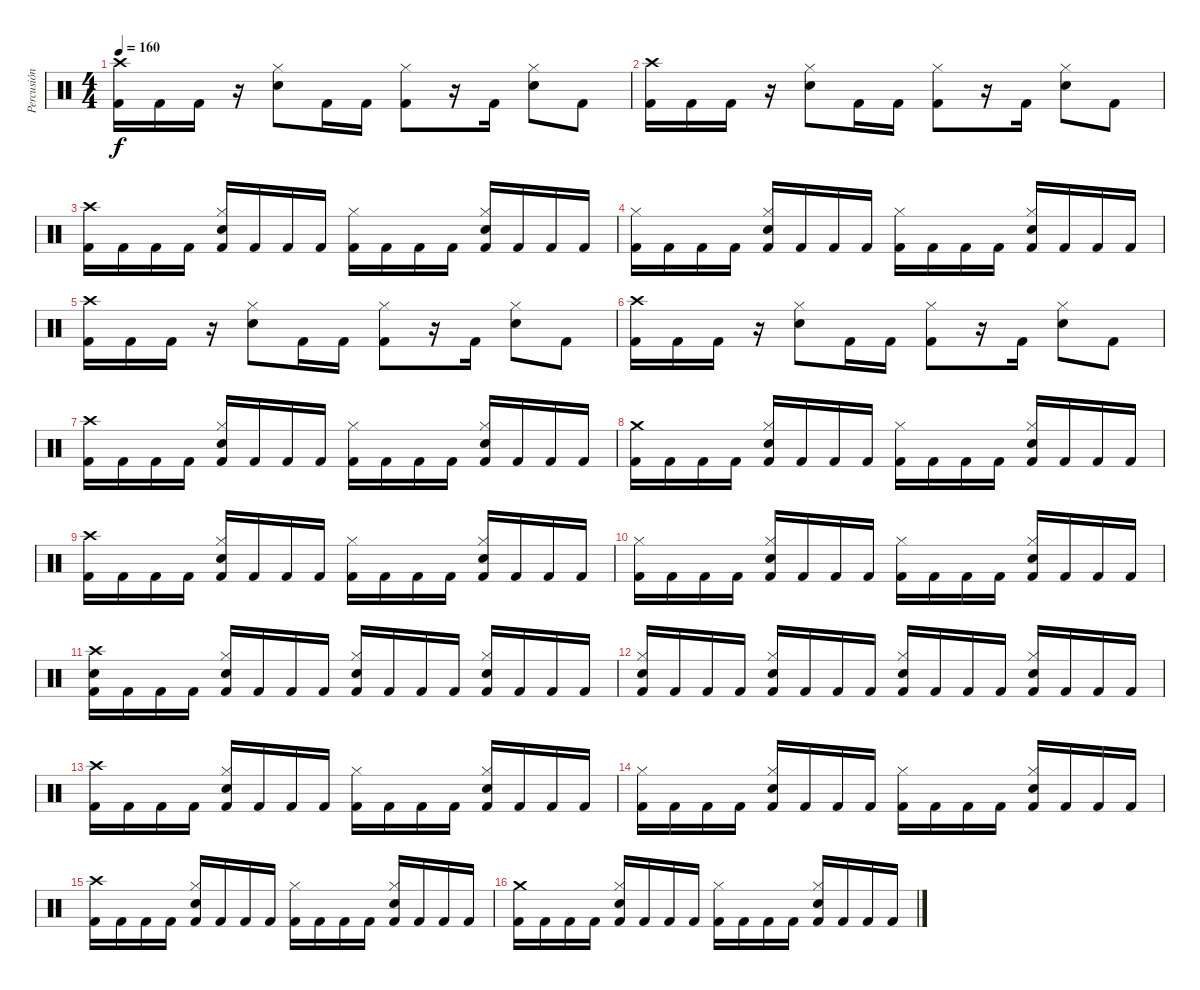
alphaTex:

\track ("Percusión" "Percusión") {instrument percussion}
\staff {score}
\articulation defaults
\ts (4 4)
\tempo 160
\clef neutral
\ks c
("Crash high (hit)" "Kick (hit) 2").16{dy f} "Kick (hit) 2".16 "Kick (hit) 2".16 r.16 ("Hi-Hat (closed)" "Electric Snare (hit)").8 "Kick (hit) 2".16 "Kick (hit) 2".16 ("Hi-Hat (closed)" "Kick (hit) 2").8 r.16 "Kick (hit) 2".16 ("Hi-Hat (closed)" "Electric Snare (hit)").8 "Kick (hit) 2".8 |
("Crash high (hit)" "Kick (hit) 2").16 "Kick (hit) 2".16 "Kick (hit) 2".16 r.16 ("Hi-Hat (closed)" "Electric Snare (hit)").8 "Kick (hit) 2".16 "Kick (hit) 2".16 ("Hi-Hat (closed)" "Kick (hit) 2").8 r.16 "Kick (hit) 2".16 ("Hi-Hat (closed)" "Electric Snare (hit)").8 "Kick (hit) 2".8 |
("Crash high (hit)" "Kick (hit) 2").16 "Kick (hit) 2".16 "Kick (hit) 2".16 "Kick (hit) 2".16 ("Hi-Hat (closed)" "Electric Snare (hit)" "Kick (hit) 2").16 "Kick (hit) 2".16 "Kick (hit) 2".16 "Kick (hit) 2".16 ("Hi-Hat (closed)" "Kick (hit) 2").16 "Kick (hit) 2".16 "Kick (hit) 2".16 "Kick (hit) 2".16 ("Hi-Hat (closed)" "Electric Snare (hit)" "Kick (hit) 2").16 "Kick (hit) 2".16 "Kick (hit) 2".16 "Kick (hit) 2".16 |
("Hi-Hat (closed)" "Kick (hit) 2").16 "Kick (hit) 2".16 "Kick (hit) 2".16 "Kick (hit) 2".16 ("Hi-Hat (closed)" "Electric Snare (hit)" "Kick (hit) 2").16 "Kick (hit) 2".16 "Kick (hit) 2".16 "Kick (hit) 2".16 ("Hi-Hat (closed)" "Kick (hit) 2").16 "Kick (hit) 2".16 "Kick (hit) 2".16 "Kick (hit) 2".16 ("Hi-Hat (closed)" "Electric Snare (hit)" "Kick (hit) 2").16 "Kick (hit) 2".16 "Kick (hit) 2".16 "Kick (hit) 2".16 |
("Crash high (hit)" "Kick (hit) 2").16 "Kick (hit) 2".16 "Kick (hit) 2".16 r.16 ("Hi-Hat (closed)" "Electric Snare (hit)").8 "Kick (hit) 2".16 "Kick (hit) 2".16 ("Hi-Hat (closed)" "Kick (hit) 2").8 r.16 "Kick (hit) 2".16 ("Hi-Hat (closed)" "Electric Snare (hit)").8 "Kick (hit) 2".8 |
("Crash high (hit)" "Kick (hit) 2").16 "Kick (hit) 2".16 "Kick (hit) 2".16 r.16 ("Hi-Hat (closed)" "Electric Snare (hit)").8 "Kick (hit) 2".16 "Kick (hit) 2".16 ("Hi-Hat (closed)" "Kick (hit) 2").8 r.16 "Kick (hit) 2".16 ("Hi-Hat (closed)" "Electric Snare (hit)").8 "Kick (hit) 2".8 |
("Crash high (hit)" "Kick (hit) 2").16 "Kick (hit) 2".16 "Kick (hit) 2".16 "Kick (hit) 2".16 ("Hi-Hat (closed)" "Electric Snare (hit)" "Kick (hit) 2").16 "Kick (hit) 2".16 "Kick (hit) 2".16 "Kick (hit) 2".16 ("Hi-Hat (closed)" "Kick (hit) 2").16 "Kick (hit) 2".16 "Kick (hit) 2".16 "Kick (hit) 2".16 ("Hi-Hat (closed)" "Electric Snare (hit)" "Kick (hit) 2").16 "Kick (hit) 2".16 "Kick (hit) 2".16 "Kick (hit) 2".16 |
("Crash medium (hit)" "Kick (hit) 2").16 "Kick (hit) 2".16 "Kick (hit) 2".16 "Kick (hit) 2".16 ("Hi-Hat (closed)" "Electric Snare (hit)" "Kick (hit) 2").16 "Kick (hit) 2".16 "Kick (hit) 2".16 "Kick (hit) 2".16 ("Hi-Hat (closed)" "Kick (hit) 2").16 "Kick (hit) 2".16 "Kick (hit) 2".16 "Kick (hit) 2".16 ("Hi-Hat (closed)" "Electric Snare (hit)" "Kick (hit) 2").16 "Kick (hit) 2".16 "Kick (hit) 2".16 "Kick (hit) 2".16 |
("Crash high (hit)" "Kick (hit) 2").16 "Kick (hit) 2".16 "Kick (hit) 2".16 "Kick (hit) 2".16 ("Hi-Hat (closed)" "Electric Snare (hit)" "Kick (hit) 2").16 "Kick (hit) 2".16 "Kick (hit) 2".16 "Kick (hit) 2".16 ("Hi-Hat (closed)" "Kick (hit) 2").16 "Kick (hit) 2".16 "Kick (hit) 2".16 "Kick (hit) 2".16 ("Hi-Hat (closed)" "Electric Snare (hit)" "Kick (hit) 2").16 "Kick (hit) 2".16 "Kick (hit) 2".16 "Kick (hit) 2".16 |
("Hi-Hat (closed)" "Kick (hit) 2").16 "Kick (hit) 2".16 "Kick (hit) 2".16 "Kick (hit) 2".16 ("Hi-Hat (closed)" "Electric Snare (hit)" "Kick (hit) 2").16 "Kick (hit) 2".16 "Kick (hit) 2".16 "Kick (hit) 2".16 ("Hi-Hat (closed)" "Kick (hit) 2").16 "Kick (hit) 2".16 "Kick (hit) 2".16 "Kick (hit) 2".16 ("Hi-Hat (closed)" "Electric Snare (hit)" "Kick (hit) 2").16 "Kick (hit) 2".16 "Kick (hit) 2".16 "Kick (hit) 2".16 |
("Crash high (hit)" "Electric Snare (hit)" "Kick (hit) 2").16 "Kick (hit) 2".16 "Kick (hit) 2".16 "Kick (hit) 2".16 ("Hi-Hat (closed)" "Electric Snare (hit)" "Kick (hit) 2").16 "Kick (hit) 2".16 "Kick (hit) 2".16 "Kick (hit) 2".16 ("Hi-Hat (closed)" "Electric Snare (hit)" "Kick (hit) 2").16 "Kick (hit) 2".16 "Kick (hit) 2".16 "Kick (hit) 2".16 ("Hi-Hat (closed)" "Electric Snare (hit)" "Kick (hit) 2").16 "Kick (hit) 2".16 "Kick (hit) 2".16 "Kick (hit) 2".16 |
("Hi-Hat (closed)" "Electric Snare (hit)" "Kick (hit) 2").16 "Kick (hit) 2".16 "Kick (hit) 2".16 "Kick (hit) 2".16 ("Hi-Hat (closed)" "Electric Snare (hit)" "Kick (hit) 2").16 "Kick (hit) 2".16 "Kick (hit) 2".16 "Kick (hit) 2".16 ("Hi-Hat (closed)" "Electric Snare (hit)" "Kick (hit) 2").16 "Kick (hit) 2".16 "Kick (hit) 2".16 "Kick (hit) 2".16 ("Hi-Hat (closed)" "Electric Snare (hit)" "Kick (hit) 2").16 "Kick (hit) 2".16 "Kick (hit) 2".16 "Kick (hit) 2".16 |
("Crash high (hit)" "Kick (hit) 2").16 "Kick (hit) 2".16 "Kick (hit) 2".16 "Kick (hit) 2".16 ("Hi-Hat (closed)" "Electric Snare (hit)" "Kick (hit) 2").16 "Kick (hit) 2".16 "Kick (hit) 2".16 "Kick (hit) 2".16 ("Hi-Hat (closed)" "Kick (hit) 2").16 "Kick (hit) 2".16 "Kick (hit) 2".16 "Kick (hit) 2".16 ("Hi-Hat (closed)" "Electric Snare (hit)" "Kick (hit) 2").16 "Kick (hit) 2".16 "Kick (hit) 2".16 "Kick (hit) 2".16 |
("Hi-Hat (closed)" "Kick (hit) 2").16 "Kick (hit) 2".16 "Kick (hit) 2".16 "Kick (hit) 2".16 ("Hi-Hat (closed)" "Electric Snare (hit)" "Kick (hit) 2").16 "Kick (hit) 2".16 "Kick (hit) 2".16 "Kick (hit) 2".16 ("Hi-Hat (closed)" "Kick (hit) 2").16 "Kick (hit) 2".16 "Kick (hit) 2".16 "Kick (hit) 2".16 ("Hi-Hat (closed)" "Electric Snare (hit)" "Kick (hit) 2").16 "Kick (hit) 2".16 "Kick (hit) 2".16 "Kick (hit) 2".16 |
("Crash high (hit)" "Kick (hit) 2").16 "Kick (hit) 2".16 "Kick (hit) 2".16 "Kick (hit) 2".16 ("Hi-Hat (closed)" "Electric Snare (hit)" "Kick (hit) 2").16 "Kick (hit) 2".16 "Kick (hit) 2".16 "Kick (hit) 2".16 ("Hi-Hat (closed)" "Kick (hit) 2").16 "Kick (hit) 2".16 "Kick (hit) 2".16 "Kick (hit) 2".16 ("Hi-Hat (closed)" "Electric Snare (hit)" "Kick (hit) 2").16 "Kick (hit) 2".16 "Kick (hit) 2".16 "Kick (hit) 2".16 |
("Crash medium (hit)" "Kick (hit) 2").16 "Kick (hit) 2".16 "Kick (hit) 2".16 "Kick (hit) 2".16 ("Hi-Hat (closed)" "Electric Snare (hit)" "Kick (hit) 2").16 "Kick (hit) 2".16 "Kick (hit) 2".16 "Kick (hit) 2".16 ("Hi-Hat (closed)" "Kick (hit) 2").16 "Kick (hit) 2".16 "Kick (hit) 2".16 "Kick (hit) 2".16 ("Hi-Hat (closed)" "Electric Snare (hit)" "Kick (hit) 2").16 "Kick (hit) 2".16 "Kick (hit) 2".16 "Kick (hit) 2".16
